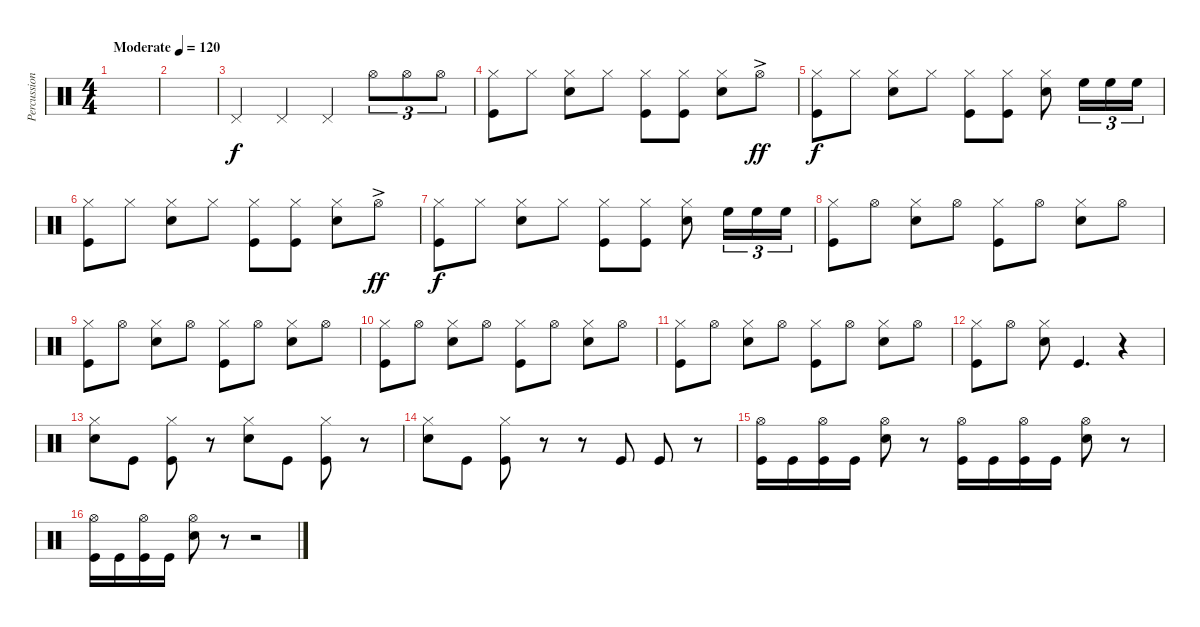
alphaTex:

\track ("Percussion" "Percussion") {instrument percussion}
\staff {score}
\articulation defaults
\ts (4 4)
\tempo (120 "Moderate")
\clef neutral
\ks c
|
|
"Pedal Hi-Hat (hit)".4 "Pedal Hi-Hat (hit)".4 "Pedal Hi-Hat (hit)".4 "Hi-Hat (open)".8{tu (3 2)} "Hi-Hat (open)".8{tu (3 2)} "Hi-Hat (open)".8{tu (3 2)} |
("Hi-Hat (closed)" "Kick (hit)").8 "Hi-Hat (closed)".8 ("Hi-Hat (closed)" "Snare (hit) 2").8 "Hi-Hat (closed)".8 ("Hi-Hat (closed)" "Kick (hit)").8 ("Hi-Hat (closed)" "Kick (hit)").8 ("Hi-Hat (closed)" "Snare (hit) 2").8 "Hi-Hat (open)"{ac}.8{dy ff} |
("Hi-Hat (closed)" "Kick (hit)").8{dy f} "Hi-Hat (closed)".8 ("Hi-Hat (closed)" "Snare (hit) 2").8 "Hi-Hat (closed)".8 ("Hi-Hat (closed)" "Kick (hit)").8 ("Hi-Hat (closed)" "Kick (hit)").8 ("Hi-Hat (closed)" "Snare (hit) 2").8 "High Floor Tom (hit)".16{tu (3 2)} "High Floor Tom (hit)".16{tu (3 2)} "High Floor Tom (hit)".16{tu (3 2)} |
("Hi-Hat (closed)" "Kick (hit)").8 "Hi-Hat (closed)".8 ("Hi-Hat (closed)" "Snare (hit) 2").8 "Hi-Hat (closed)".8 ("Hi-Hat (closed)" "Kick (hit)").8 ("Hi-Hat (closed)" "Kick (hit)").8 ("Hi-Hat (closed)" "Snare (hit) 2").8 "Hi-Hat (open)"{ac}.8{dy ff} |
("Hi-Hat (closed)" "Kick (hit)").8{dy f} "Hi-Hat (closed)".8 ("Hi-Hat (closed)" "Snare (hit) 2").8 "Hi-Hat (closed)".8 ("Hi-Hat (closed)" "Kick (hit)").8 ("Hi-Hat (closed)" "Kick (hit)").8 ("Hi-Hat (closed)" "Snare (hit) 2").8 "High Floor Tom (hit)".16{tu (3 2)} "High Floor Tom (hit)".16{tu (3 2)} "High Floor Tom (hit)".16{tu (3 2)} |
("Hi-Hat (closed)" "Kick (hit)").8 "Hi-Hat (open)".8 ("Hi-Hat (closed)" "Snare (hit) 2").8 "Hi-Hat (open)".8 ("Hi-Hat (closed)" "Kick (hit)").8 "Hi-Hat (open)".8 ("Hi-Hat (closed)" "Snare (hit) 2").8 "Hi-Hat (open)".8 |
("Hi-Hat (closed)" "Kick (hit)").8 "Hi-Hat (open)".8 ("Hi-Hat (closed)" "Snare (hit) 2").8 "Hi-Hat (open)".8 ("Hi-Hat (closed)" "Kick (hit)").8 "Hi-Hat (open)".8 ("Hi-Hat (closed)" "Snare (hit) 2").8 "Hi-Hat (open)".8 |
("Hi-Hat (closed)" "Kick (hit)").8 "Hi-Hat (open)".8 ("Hi-Hat (closed)" "Snare (hit) 2").8 "Hi-Hat (open)".8 ("Hi-Hat (closed)" "Kick (hit)").8 "Hi-Hat (open)".8 ("Hi-Hat (closed)" "Snare (hit) 2").8 "Hi-Hat (open)".8 |
("Hi-Hat (closed)" "Kick (hit)").8 "Hi-Hat (open)".8 ("Hi-Hat (closed)" "Snare (hit) 2").8 "Hi-Hat (open)".8 ("Hi-Hat (closed)" "Kick (hit)").8 "Hi-Hat (open)".8 ("Hi-Hat (closed)" "Snare (hit) 2").8 "Hi-Hat (open)".8 |
("Hi-Hat (closed)" "Kick (hit)").8 "Hi-Hat (open)".8 ("Hi-Hat (closed)" "Snare (hit) 2").8 "Kick (hit)".4{d} r.4 |
("Hi-Hat (closed)" "Snare (hit) 2").8 "Kick (hit)".8 ("Hi-Hat (closed)" "Kick (hit)").8 r.8 ("Hi-Hat (closed)" "Snare (hit) 2").8 "Kick (hit)".8 ("Hi-Hat (closed)" "Kick (hit)").8 r.8 |
("Hi-Hat (closed)" "Snare (hit) 2").8 "Kick (hit)".8 ("Hi-Hat (closed)" "Kick (hit)").8 r.8 r.8 "Kick (hit)".8 "Kick (hit)".8 r.8 |
("Hi-Hat (open)" "Kick (hit)").16 "Kick (hit)".16 ("Hi-Hat (open)" "Kick (hit)").16 "Kick (hit)".16 ("Hi-Hat (open)" "Snare (hit) 2").8 r.8 ("Hi-Hat (open)" "Kick (hit)").16 "Kick (hit)".16 ("Hi-Hat (open)" "Kick (hit)").16 "Kick (hit)".16 ("Hi-Hat (open)" "Snare (hit) 2").8 r.8 |
("Hi-Hat (open)" "Kick (hit)").16 "Kick (hit)".16 ("Hi-Hat (open)" "Kick (hit)").16 "Kick (hit)".16 ("Hi-Hat (open)" "Snare (hit) 2").8 r.8 r.2
